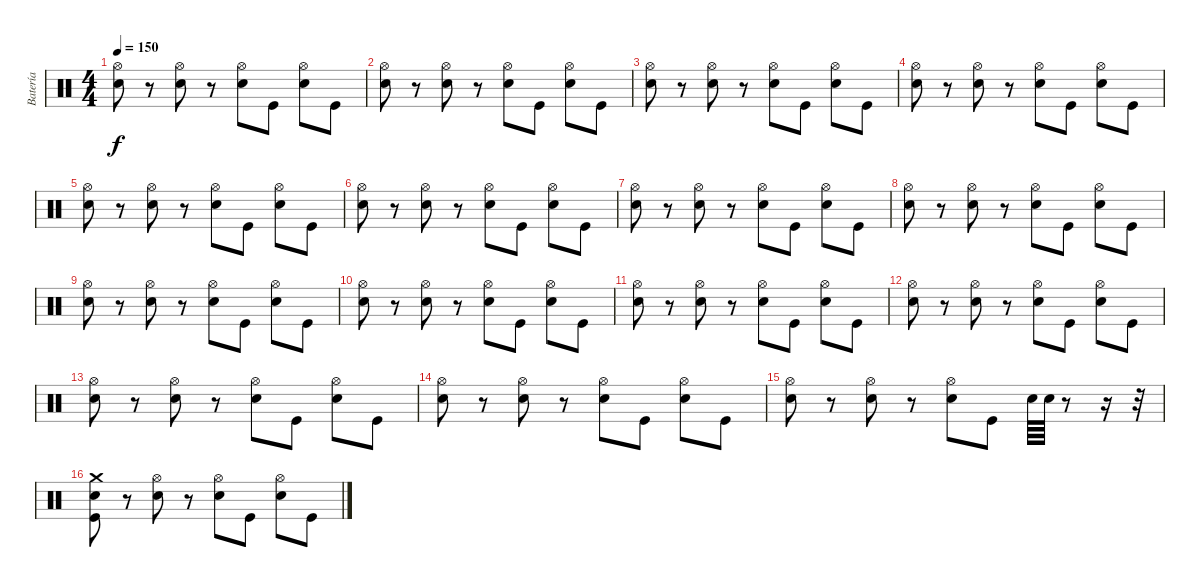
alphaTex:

\track ("Batería" "Batería") {instrument percussion}
\staff {score}
\articulation defaults
\ts (4 4)
\tempo 150
\clef neutral
\ks c
("Hi-Hat (open)" "Snare (hit) 2").8{dy f} r.8 ("Hi-Hat (open)" "Snare (hit) 2").8 r.8 ("Hi-Hat (open)" "Snare (hit) 2").8 "Kick (hit)".8 ("Hi-Hat (open)" "Snare (hit) 2").8 "Kick (hit)".8 |
("Hi-Hat (open)" "Snare (hit) 2").8 r.8 ("Hi-Hat (open)" "Snare (hit) 2").8 r.8 ("Hi-Hat (open)" "Snare (hit) 2").8 "Kick (hit)".8 ("Hi-Hat (open)" "Snare (hit) 2").8 "Kick (hit)".8 |
("Hi-Hat (open)" "Snare (hit) 2").8 r.8 ("Hi-Hat (open)" "Snare (hit) 2").8 r.8 ("Hi-Hat (open)" "Snare (hit) 2").8 "Kick (hit)".8 ("Hi-Hat (open)" "Snare (hit) 2").8 "Kick (hit)".8 |
("Hi-Hat (open)" "Snare (hit) 2").8 r.8 ("Hi-Hat (open)" "Snare (hit) 2").8 r.8 ("Hi-Hat (open)" "Snare (hit) 2").8 "Kick (hit)".8 ("Hi-Hat (open)" "Snare (hit) 2").8 "Kick (hit)".8 |
("Hi-Hat (open)" "Snare (hit) 2").8 r.8 ("Hi-Hat (open)" "Snare (hit) 2").8 r.8 ("Hi-Hat (open)" "Snare (hit) 2").8 "Kick (hit)".8 ("Hi-Hat (open)" "Snare (hit) 2").8 "Kick (hit)".8 |
("Hi-Hat (open)" "Snare (hit) 2").8 r.8 ("Hi-Hat (open)" "Snare (hit) 2").8 r.8 ("Hi-Hat (open)" "Snare (hit) 2").8 "Kick (hit)".8 ("Hi-Hat (open)" "Snare (hit) 2").8 "Kick (hit)".8 |
("Hi-Hat (open)" "Snare (hit) 2").8 r.8 ("Hi-Hat (open)" "Snare (hit) 2").8 r.8 ("Hi-Hat (open)" "Snare (hit) 2").8 "Kick (hit)".8 ("Hi-Hat (open)" "Snare (hit) 2").8 "Kick (hit)".8 |
("Hi-Hat (open)" "Snare (hit) 2").8 r.8 ("Hi-Hat (open)" "Snare (hit) 2").8 r.8 ("Hi-Hat (open)" "Snare (hit) 2").8 "Kick (hit)".8 ("Hi-Hat (open)" "Snare (hit) 2").8 "Kick (hit)".8 |
("Hi-Hat (open)" "Snare (hit) 2").8 r.8 ("Hi-Hat (open)" "Snare (hit) 2").8 r.8 ("Hi-Hat (open)" "Snare (hit) 2").8 "Kick (hit)".8 ("Hi-Hat (open)" "Snare (hit) 2").8 "Kick (hit)".8 |
("Hi-Hat (open)" "Snare (hit) 2").8 r.8 ("Hi-Hat (open)" "Snare (hit) 2").8 r.8 ("Hi-Hat (open)" "Snare (hit) 2").8 "Kick (hit)".8 ("Hi-Hat (open)" "Snare (hit) 2").8 "Kick (hit)".8 |
("Hi-Hat (open)" "Snare (hit) 2").8 r.8 ("Hi-Hat (open)" "Snare (hit) 2").8 r.8 ("Hi-Hat (open)" "Snare (hit) 2").8 "Kick (hit)".8 ("Hi-Hat (open)" "Snare (hit) 2").8 "Kick (hit)".8 |
("Hi-Hat (open)" "Snare (hit) 2").8 r.8 ("Hi-Hat (open)" "Snare (hit) 2").8 r.8 ("Hi-Hat (open)" "Snare (hit) 2").8 "Kick (hit)".8 ("Hi-Hat (open)" "Snare (hit) 2").8 "Kick (hit)".8 |
("Hi-Hat (open)" "Snare (hit) 2").8 r.8 ("Hi-Hat (open)" "Snare (hit) 2").8 r.8 ("Hi-Hat (open)" "Snare (hit) 2").8 "Kick (hit)".8 ("Hi-Hat (open)" "Snare (hit) 2").8 "Kick (hit)".8 |
("Hi-Hat (open)" "Snare (hit) 2").8 r.8 ("Hi-Hat (open)" "Snare (hit) 2").8 r.8 ("Hi-Hat (open)" "Snare (hit) 2").8 "Kick (hit)".8 ("Hi-Hat (open)" "Snare (hit) 2").8 "Kick (hit)".8 |
("Hi-Hat (open)" "Snare (hit) 2").8 r.8 ("Hi-Hat (open)" "Snare (hit) 2").8 r.8 ("Hi-Hat (open)" "Snare (hit) 2").8 "Kick (hit)".8 "Snare (hit) 2".64 "Snare (hit) 2".64 r.8 r.16 r.32 |
("Crash medium (hit)" "Snare (hit) 2" "Kick (hit)").8 r.8 ("Hi-Hat (open)" "Snare (hit) 2").8 r.8 ("Hi-Hat (open)" "Snare (hit) 2").8 "Kick (hit)".8 ("Hi-Hat (open)" "Snare (hit) 2").8 "Kick (hit)".8
